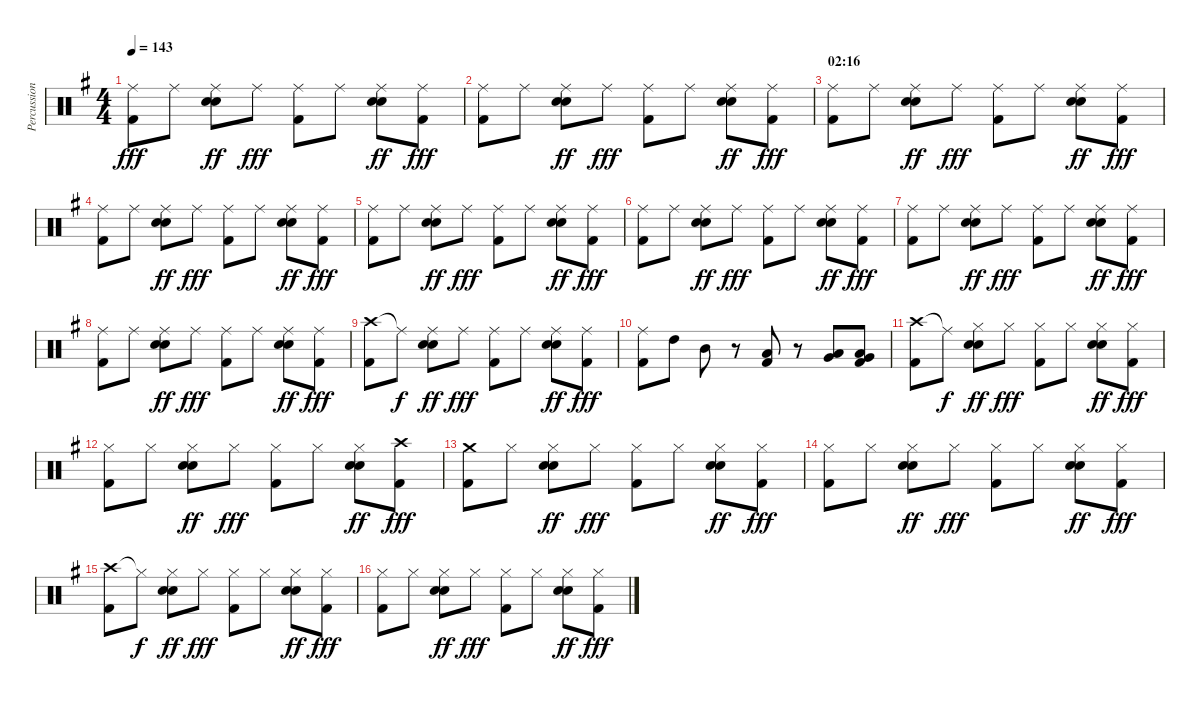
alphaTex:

\track ("Percussion" "Percussion") {instrument percussion}
\staff {score}
\articulation defaults
\ts (4 4)
\tempo 143
\clef neutral
\ks g
("Ride (middle)" "Kick (hit) 2").8{dy fff} "Ride (middle)".8 ("Ride (middle)" "Snare (hit) 2" "Electric Snare (hit)").8{dy ff} "Ride (middle)".8{dy fff} ("Ride (middle)" "Kick (hit) 2").8 "Ride (middle)".8 ("Ride (middle)" "Snare (hit) 2" "Electric Snare (hit)").8{dy ff} ("Ride (middle)" "Kick (hit) 2").8{dy fff} |
("Ride (middle)" "Kick (hit) 2").8 "Ride (middle)".8 ("Ride (middle)" "Snare (hit) 2" "Electric Snare (hit)").8{dy ff} "Ride (middle)".8{dy fff} ("Ride (middle)" "Kick (hit) 2").8 "Ride (middle)".8 ("Ride (middle)" "Snare (hit) 2" "Electric Snare (hit)").8{dy ff} ("Ride (middle)" "Kick (hit) 2").8{dy fff} |
\section ("" "02:16")
("Ride (middle)" "Kick (hit) 2").8 "Ride (middle)".8 ("Ride (middle)" "Snare (hit) 2" "Electric Snare (hit)").8{dy ff} "Ride (middle)".8{dy fff} ("Ride (middle)" "Kick (hit) 2").8 "Ride (middle)".8 ("Ride (middle)" "Snare (hit) 2" "Electric Snare (hit)").8{dy ff} ("Ride (middle)" "Kick (hit) 2").8{dy fff} |
("Ride (middle)" "Kick (hit) 2").8 "Ride (middle)".8 ("Ride (middle)" "Snare (hit) 2" "Electric Snare (hit)").8{dy ff} "Ride (middle)".8{dy fff} ("Ride (middle)" "Kick (hit) 2").8 "Ride (middle)".8 ("Ride (middle)" "Snare (hit) 2" "Electric Snare (hit)").8{dy ff} ("Ride (middle)" "Kick (hit) 2").8{dy fff} |
("Ride (middle)" "Kick (hit) 2").8 "Ride (middle)".8 ("Ride (middle)" "Snare (hit) 2" "Electric Snare (hit)").8{dy ff} "Ride (middle)".8{dy fff} ("Ride (middle)" "Kick (hit) 2").8 "Ride (middle)".8 ("Ride (middle)" "Snare (hit) 2" "Electric Snare (hit)").8{dy ff} ("Ride (middle)" "Kick (hit) 2").8{dy fff} |
("Ride (middle)" "Kick (hit) 2").8 "Ride (middle)".8 ("Ride (middle)" "Snare (hit) 2" "Electric Snare (hit)").8{dy ff} "Ride (middle)".8{dy fff} ("Ride (middle)" "Kick (hit) 2").8 "Ride (middle)".8 ("Ride (middle)" "Snare (hit) 2" "Electric Snare (hit)").8{dy ff} ("Ride (middle)" "Kick (hit) 2").8{dy fff} |
("Ride (middle)" "Kick (hit) 2").8 "Ride (middle)".8 ("Ride (middle)" "Snare (hit) 2" "Electric Snare (hit)").8{dy ff} "Ride (middle)".8{dy fff} ("Ride (middle)" "Kick (hit) 2").8 "Ride (middle)".8 ("Ride (middle)" "Snare (hit) 2" "Electric Snare (hit)").8{dy ff} ("Ride (middle)" "Kick (hit) 2").8{dy fff} |
("Ride (middle)" "Kick (hit) 2").8 "Ride (middle)".8 ("Ride (middle)" "Snare (hit) 2" "Electric Snare (hit)").8{dy ff} "Ride (middle)".8{dy fff} ("Ride (middle)" "Kick (hit) 2").8 "Ride (middle)".8 ("Ride (middle)" "Snare (hit) 2" "Electric Snare (hit)").8{dy ff} ("Ride (middle)" "Kick (hit) 2").8{dy fff} |
("Crash high (hit)" "Kick (hit) 2").8 "Ride (middle)"{t}.8{dy f} ("Ride (middle)" "Snare (hit) 2" "Electric Snare (hit)").8{dy ff} "Ride (middle)".8{dy fff} ("Ride (middle)" "Kick (hit) 2").8 "Ride (middle)".8 ("Ride (middle)" "Snare (hit) 2" "Electric Snare (hit)").8{dy ff} ("Ride (middle)" "Kick (hit) 2").8{dy fff} |
("Ride (middle)" "Kick (hit) 2").8 "High Tom (hit)".8{balance 0} "Mid Tom (hit)".8 r.8 ("Low Tom (hit)" "Kick (hit) 2").8{balance 8} r.8 ("Very Low Tom (hit)" "Low Floor Tom (hit)").8{balance 16} ("Very Low Tom (hit)" "Low Floor Tom (hit)" "Kick (hit) 2").8 |
("Crash high (hit)" "Kick (hit) 2").8{balance 8} "Ride (middle)"{t}.8{dy f} ("Hi-Hat (closed)" "Snare (hit) 2" "Electric Snare (hit)").8{dy ff} "Hi-Hat (closed)".8{dy fff} ("Hi-Hat (closed)" "Kick (hit) 2").8 "Hi-Hat (closed)".8 ("Hi-Hat (closed)" "Snare (hit) 2" "Electric Snare (hit)").8{dy ff} ("Hi-Hat (closed)" "Kick (hit) 2").8{dy fff} |
("Hi-Hat (closed)" "Kick (hit) 2").8 "Hi-Hat (closed)".8 ("Hi-Hat (closed)" "Snare (hit) 2" "Electric Snare (hit)").8{dy ff} "Hi-Hat (closed)".8{dy fff} ("Hi-Hat (closed)" "Kick (hit) 2").8 "Hi-Hat (closed)".8 ("Hi-Hat (closed)" "Snare (hit) 2" "Electric Snare (hit)").8{dy ff} ("Crash high (hit)" "Kick (hit) 2").8{dy fff} |
("Crash medium (hit)" "Kick (hit) 2").8 "Hi-Hat (closed)".8 ("Hi-Hat (closed)" "Snare (hit) 2" "Electric Snare (hit)").8{dy ff} "Hi-Hat (closed)".8{dy fff} ("Hi-Hat (closed)" "Kick (hit) 2").8 "Hi-Hat (closed)".8 ("Hi-Hat (closed)" "Snare (hit) 2" "Electric Snare (hit)").8{dy ff} ("Hi-Hat (closed)" "Kick (hit) 2").8{dy fff} |
("Hi-Hat (closed)" "Kick (hit) 2").8 "Hi-Hat (closed)".8 ("Hi-Hat (closed)" "Snare (hit) 2" "Electric Snare (hit)").8{dy ff} "Hi-Hat (closed)".8{dy fff} ("Hi-Hat (closed)" "Kick (hit) 2").8 "Hi-Hat (closed)".8 ("Hi-Hat (closed)" "Snare (hit) 2" "Electric Snare (hit)").8{dy ff} ("Hi-Hat (closed)" "Kick (hit) 2").8{dy fff} |
("Crash high (hit)" "Kick (hit) 2").8 "Hi-Hat (closed)"{t}.8{dy f} ("Hi-Hat (closed)" "Snare (hit) 2" "Electric Snare (hit)").8{dy ff} "Hi-Hat (closed)".8{dy fff} ("Hi-Hat (closed)" "Kick (hit) 2").8 "Hi-Hat (closed)".8 ("Hi-Hat (closed)" "Snare (hit) 2" "Electric Snare (hit)").8{dy ff} ("Hi-Hat (closed)" "Kick (hit) 2").8{dy fff} |
("Hi-Hat (closed)" "Kick (hit) 2").8 "Hi-Hat (closed)".8 ("Hi-Hat (closed)" "Snare (hit) 2" "Electric Snare (hit)").8{dy ff} "Hi-Hat (closed)".8{dy fff} ("Hi-Hat (closed)" "Kick (hit) 2").8 "Hi-Hat (closed)".8 ("Hi-Hat (closed)" "Snare (hit) 2" "Electric Snare (hit)").8{dy ff} ("Hi-Hat (closed)" "Kick (hit) 2").8{dy fff}
